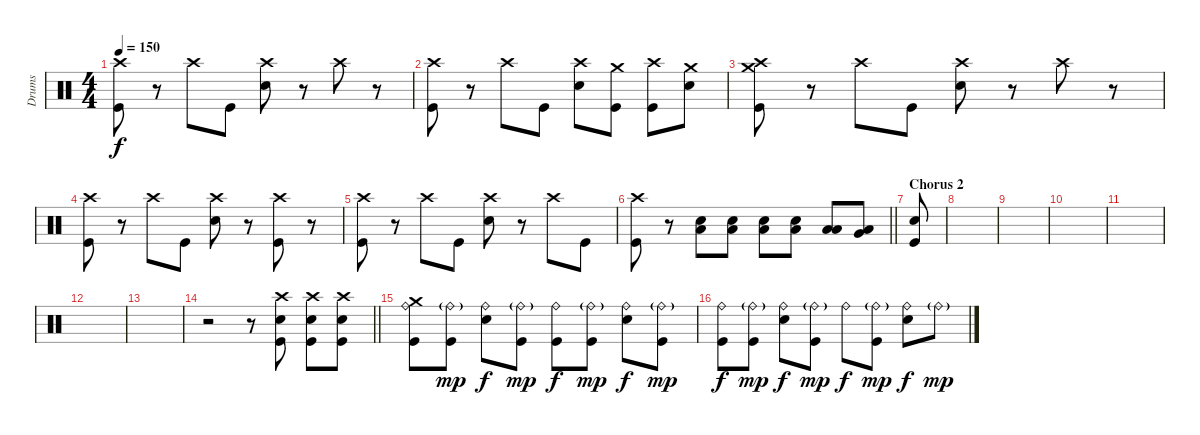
\track ("Drums" "Drums") {instrument percussion}
\staff {score}
\articulation defaults
\ts (4 4)
\tempo 150
\clef neutral
\ks c
("Crash high (hit)" "Kick (hit)").8{dy f} r.8 "Crash high (hit)".8 "Kick (hit)".8 ("Crash high (hit)" "Electric Snare (hit)").8 r.8 "Crash high (hit)".8 r.8 |
("Crash high (hit)" "Kick (hit)").8 r.8 "Crash high (hit)".8 "Kick (hit)".8 ("Crash high (hit)" "Electric Snare (hit)").8 ("Crash medium (hit)" "Kick (hit)").8 ("Crash high (hit)" "Kick (hit)").8 ("Crash medium (hit)" "Electric Snare (hit)").8 |
("Crash medium (hit)" "Crash high (hit)" "Kick (hit)").8 r.8 "Crash high (hit)".8 "Kick (hit)".8 ("Crash high (hit)" "Electric Snare (hit)").8 r.8 "Crash high (hit)".8 r.8 |
("Crash high (hit)" "Kick (hit)").8 r.8 "Crash high (hit)".8 "Kick (hit)".8 ("Crash high (hit)" "Electric Snare (hit)").8 r.8 ("Crash high (hit)" "Kick (hit)").8 r.8 |
("Crash high (hit)" "Kick (hit)").8 r.8 "Crash high (hit)".8 "Kick (hit)".8 ("Crash high (hit)" "Electric Snare (hit)").8 r.8 "Crash high (hit)".8 "Kick (hit)".8 |
\barLineRight lightlight
("Crash high (hit)" "Kick (hit)").8 r.8{volume 8} ("Electric Snare (hit)" "Low Floor Tom (hit)").8{volume 13} ("Electric Snare (hit)" "Low Floor Tom (hit)").8 ("Electric Snare (hit)" "Low Floor Tom (hit)").8 ("Electric Snare (hit)" "Low Floor Tom (hit)").8 ("Low Tom (hit)" "Low Floor Tom (hit)").8 ("Very Low Tom (hit)" "Low Floor Tom (hit)").8 |
\section ("" "Chorus 2")
("Electric Snare (hit)" "Kick (hit)").8 |
|
|
|
|
|
|
\barLineRight lightlight
r.2 r.8 ("Crash high (hit)" "Electric Snare (hit)" "Kick (hit)").8{volume 13} ("Crash high (hit)" "Electric Snare (hit)" "Kick (hit)").8 ("Crash high (hit)" "Electric Snare (hit)" "Kick (hit)").8 |
("Crash medium (hit)" "Ride (bell)" "Kick (hit)").8 ("Ride (bell)"{g} "Kick (hit)").8{dy mp} ("Ride (bell)" "Electric Snare (hit)").8{dy f} ("Ride (bell)"{g} "Kick (hit)").8{dy mp} ("Ride (bell)" "Kick (hit)").8{dy f} ("Ride (bell)"{g} "Kick (hit)").8{dy mp} ("Ride (bell)" "Electric Snare (hit)").8{dy f} ("Ride (bell)"{g} "Kick (hit)").8{dy mp} |
("Ride (bell)" "Kick (hit)").8{dy f} ("Ride (bell)"{g} "Kick (hit)").8{dy mp} ("Ride (bell)" "Electric Snare (hit)").8{dy f} ("Ride (bell)"{g} "Kick (hit)").8{dy mp} "Ride (bell)".8{dy f} ("Ride (bell)"{g} "Kick (hit)").8{dy mp} ("Ride (bell)" "Electric Snare (hit)").8{dy f} "Ride (bell)"{g}.8{dy mp}
